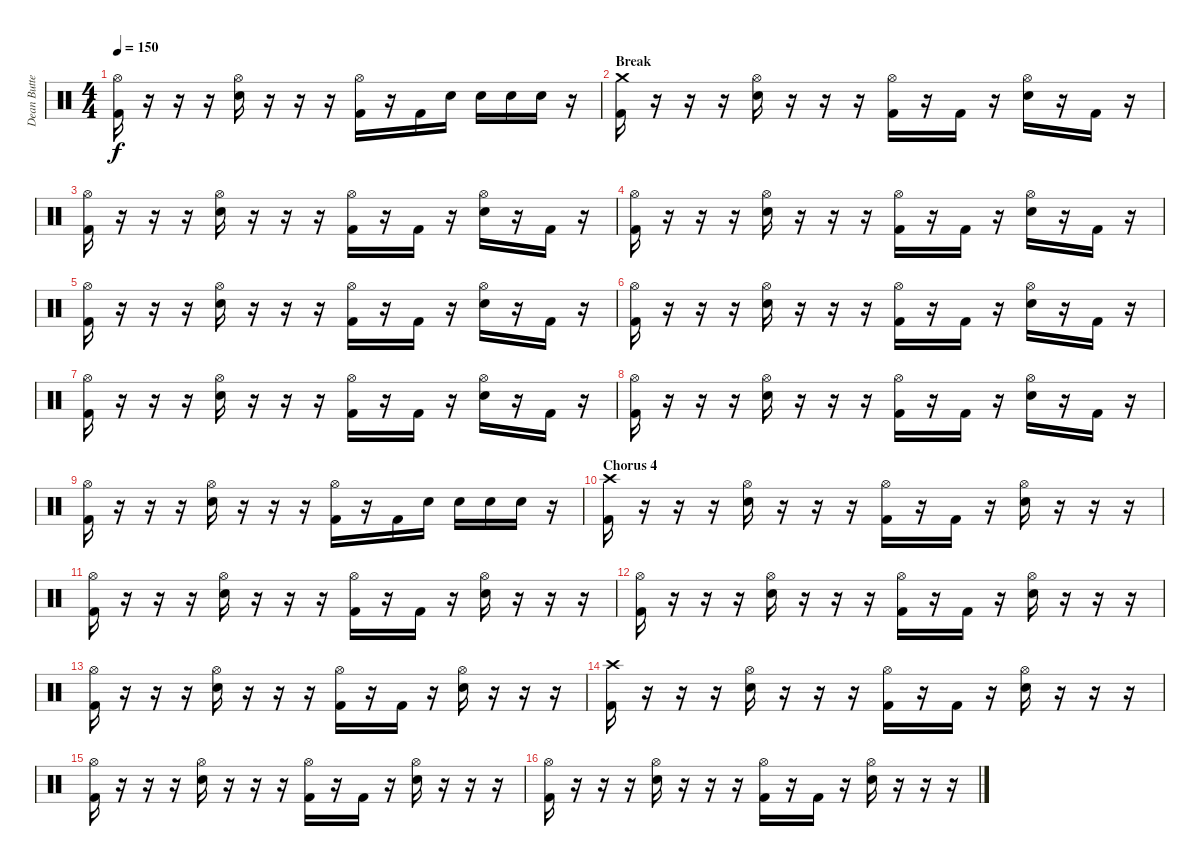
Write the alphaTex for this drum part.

\track ("Dean Butterworth" "Dean Butte") {instrument percussion}
\staff {score}
\articulation defaults
\ts (4 4)
\tempo 150
\clef neutral
\ks c
("Hi-Hat (open)" "Kick (hit) 2").16{dy f} r.16 r.16 r.16 ("Hi-Hat (open)" "Electric Snare (hit)").16 r.16 r.16 r.16 ("Hi-Hat (open)" "Kick (hit) 2").16 r.16 "Kick (hit) 2".16 "Electric Snare (hit)".16 "Electric Snare (hit)".16 "Electric Snare (hit)".16 "Electric Snare (hit)".16 r.16 |
\section ("" "Break")
("Crash medium (hit)" "Kick (hit) 2").16 r.16 r.16 r.16 ("Hi-Hat (open)" "Snare (hit) 2").16 r.16 r.16 r.16 ("Hi-Hat (open)" "Kick (hit) 2").16 r.16 "Kick (hit) 2".16 r.16 ("Hi-Hat (open)" "Snare (hit) 2").16 r.16 "Kick (hit) 2".16 r.16 |
("Hi-Hat (open)" "Kick (hit) 2").16 r.16 r.16 r.16 ("Hi-Hat (open)" "Snare (hit) 2").16 r.16 r.16 r.16 ("Hi-Hat (open)" "Kick (hit) 2").16 r.16 "Kick (hit) 2".16 r.16 ("Hi-Hat (open)" "Snare (hit) 2").16 r.16 "Kick (hit) 2".16 r.16 |
("Hi-Hat (open)" "Kick (hit) 2").16 r.16 r.16 r.16 ("Hi-Hat (open)" "Snare (hit) 2").16 r.16 r.16 r.16 ("Hi-Hat (open)" "Kick (hit) 2").16 r.16 "Kick (hit) 2".16 r.16 ("Hi-Hat (open)" "Snare (hit) 2").16 r.16 "Kick (hit) 2".16 r.16 |
("Hi-Hat (open)" "Kick (hit) 2").16 r.16 r.16 r.16 ("Hi-Hat (open)" "Snare (hit) 2").16 r.16 r.16 r.16 ("Hi-Hat (open)" "Kick (hit) 2").16 r.16 "Kick (hit) 2".16 r.16 ("Hi-Hat (open)" "Snare (hit) 2").16 r.16 "Kick (hit) 2".16 r.16 |
("Hi-Hat (open)" "Kick (hit) 2").16 r.16 r.16 r.16 ("Hi-Hat (open)" "Snare (hit) 2").16 r.16 r.16 r.16 ("Hi-Hat (open)" "Kick (hit) 2").16 r.16 "Kick (hit) 2".16 r.16 ("Hi-Hat (open)" "Snare (hit) 2").16 r.16 "Kick (hit) 2".16 r.16 |
("Hi-Hat (open)" "Kick (hit) 2").16 r.16 r.16 r.16 ("Hi-Hat (open)" "Snare (hit) 2").16 r.16 r.16 r.16 ("Hi-Hat (open)" "Kick (hit) 2").16 r.16 "Kick (hit) 2".16 r.16 ("Hi-Hat (open)" "Snare (hit) 2").16 r.16 "Kick (hit) 2".16 r.16 |
("Hi-Hat (open)" "Kick (hit) 2").16 r.16 r.16 r.16 ("Hi-Hat (open)" "Snare (hit) 2").16 r.16 r.16 r.16 ("Hi-Hat (open)" "Kick (hit) 2").16 r.16 "Kick (hit) 2".16 r.16 ("Hi-Hat (open)" "Snare (hit) 2").16 r.16 "Kick (hit) 2".16 r.16 |
("Hi-Hat (open)" "Kick (hit) 2").16 r.16 r.16 r.16 ("Hi-Hat (open)" "Snare (hit) 2").16 r.16 r.16 r.16 ("Hi-Hat (open)" "Kick (hit) 2").16 r.16 "Kick (hit) 2".16 "Snare (hit) 2".16 "Snare (hit) 2".16 "Snare (hit) 2".16 "Snare (hit) 2".16 r.16 |
\section ("" "Chorus 4")
("Crash high (hit)" "Kick (hit) 2").16 r.16 r.16 r.16 ("Hi-Hat (open)" "Electric Snare (hit)").16 r.16 r.16 r.16 ("Hi-Hat (open)" "Kick (hit) 2").16 r.16 "Kick (hit) 2".16 r.16 ("Hi-Hat (open)" "Electric Snare (hit)").16 r.16 r.16 r.16 |
("Hi-Hat (open)" "Kick (hit) 2").16 r.16 r.16 r.16 ("Hi-Hat (open)" "Electric Snare (hit)").16 r.16 r.16 r.16 ("Hi-Hat (open)" "Kick (hit) 2").16 r.16 "Kick (hit) 2".16 r.16 ("Hi-Hat (open)" "Electric Snare (hit)").16 r.16 r.16 r.16 |
("Hi-Hat (open)" "Kick (hit) 2").16 r.16 r.16 r.16 ("Hi-Hat (open)" "Electric Snare (hit)").16 r.16 r.16 r.16 ("Hi-Hat (open)" "Kick (hit) 2").16 r.16 "Kick (hit) 2".16 r.16 ("Hi-Hat (open)" "Electric Snare (hit)").16 r.16 r.16 r.16 |
("Hi-Hat (open)" "Kick (hit) 2").16 r.16 r.16 r.16 ("Hi-Hat (open)" "Electric Snare (hit)").16 r.16 r.16 r.16 ("Hi-Hat (open)" "Kick (hit) 2").16 r.16 "Kick (hit) 2".16 r.16 ("Hi-Hat (open)" "Electric Snare (hit)").16 r.16 r.16 r.16 |
("Crash high (hit)" "Kick (hit) 2").16 r.16 r.16 r.16 ("Hi-Hat (open)" "Electric Snare (hit)").16 r.16 r.16 r.16 ("Hi-Hat (open)" "Kick (hit) 2").16 r.16 "Kick (hit) 2".16 r.16 ("Hi-Hat (open)" "Electric Snare (hit)").16 r.16 r.16 r.16 |
("Hi-Hat (open)" "Kick (hit) 2").16 r.16 r.16 r.16 ("Hi-Hat (open)" "Electric Snare (hit)").16 r.16 r.16 r.16 ("Hi-Hat (open)" "Kick (hit) 2").16 r.16 "Kick (hit) 2".16 r.16 ("Hi-Hat (open)" "Electric Snare (hit)").16 r.16 r.16 r.16 |
("Hi-Hat (open)" "Kick (hit) 2").16 r.16 r.16 r.16 ("Hi-Hat (open)" "Electric Snare (hit)").16 r.16 r.16 r.16 ("Hi-Hat (open)" "Kick (hit) 2").16 r.16 "Kick (hit) 2".16 r.16 ("Hi-Hat (open)" "Electric Snare (hit)").16 r.16 r.16 r.16
